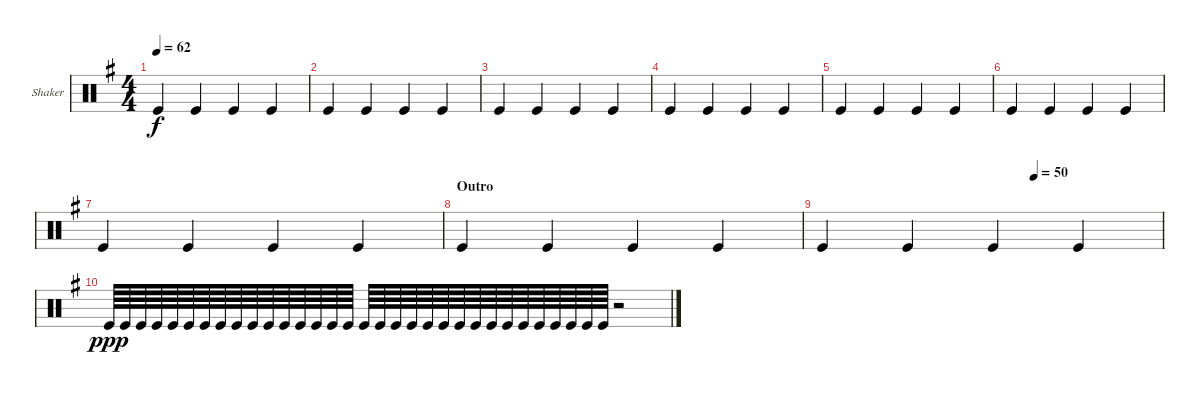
\defaultSystemsLayout 4
\bracketExtendMode groupsimilarinstruments
\firstSystemTrackNameOrientation horizontal
\otherSystemsTrackNameOrientation horizontal
\track ("Shaker" "Shaker") {mute instrument percussion}
\staff {score}
\articulation defaults
\ts (4 4)
\tempo 62
\clef neutral
\scale
0.333333
\ks g "Kick (hit)".4{dy f} "Kick (hit)".4 "Kick (hit)".4 "Kick (hit)".4
|
\scale
0.333333 "Kick (hit)".4 "Kick (hit)".4 "Kick (hit)".4 "Kick (hit)".4 |
\scale
0.333333 "Kick (hit)".4 "Kick (hit)".4 "Kick (hit)".4 "Kick (hit)".4 |
\scale
0.333333 "Kick (hit)".4 "Kick (hit)".4 "Kick (hit)".4 "Kick (hit)".4 |
"Kick (hit)".4 "Kick (hit)".4 "Kick (hit)".4 "Kick (hit)".4 |
"Kick (hit)".4 "Kick (hit)".4 "Kick (hit)".4 "Kick (hit)".4 |
"Kick (hit)".4 "Kick (hit)".4 "Kick (hit)".4 "Kick (hit)".4 |
\section ("" "Outro")
"Kick (hit)".4 "Kick (hit)".4 "Kick (hit)".4 "Kick (hit)".4 |
\tempo (50 0.625)
"Kick (hit)".4 "Kick (hit)".4 "Kick (hit)".4 "Kick (hit)".4 |
"Kick (hit)".64{dy ppp} "Kick (hit)".64 "Kick (hit)".64 "Kick (hit)".64 "Kick (hit)".64 "Kick (hit)".64 "Kick (hit)".64 "Kick (hit)".64 "Kick (hit)".64 "Kick (hit)".64 "Kick (hit)".64 "Kick (hit)".64 "Kick (hit)".64 "Kick (hit)".64 "Kick (hit)".64 "Kick (hit)".64 "Kick (hit)".64 "Kick (hit)".64 "Kick (hit)".64 "Kick (hit)".64 "Kick (hit)".64 "Kick (hit)".64 "Kick (hit)".64 "Kick (hit)".64 "Kick (hit)".64 "Kick (hit)".64 "Kick (hit)".64 "Kick (hit)".64 "Kick (hit)".64 "Kick (hit)".64 "Kick (hit)".64 "Kick (hit)".64 r.2
